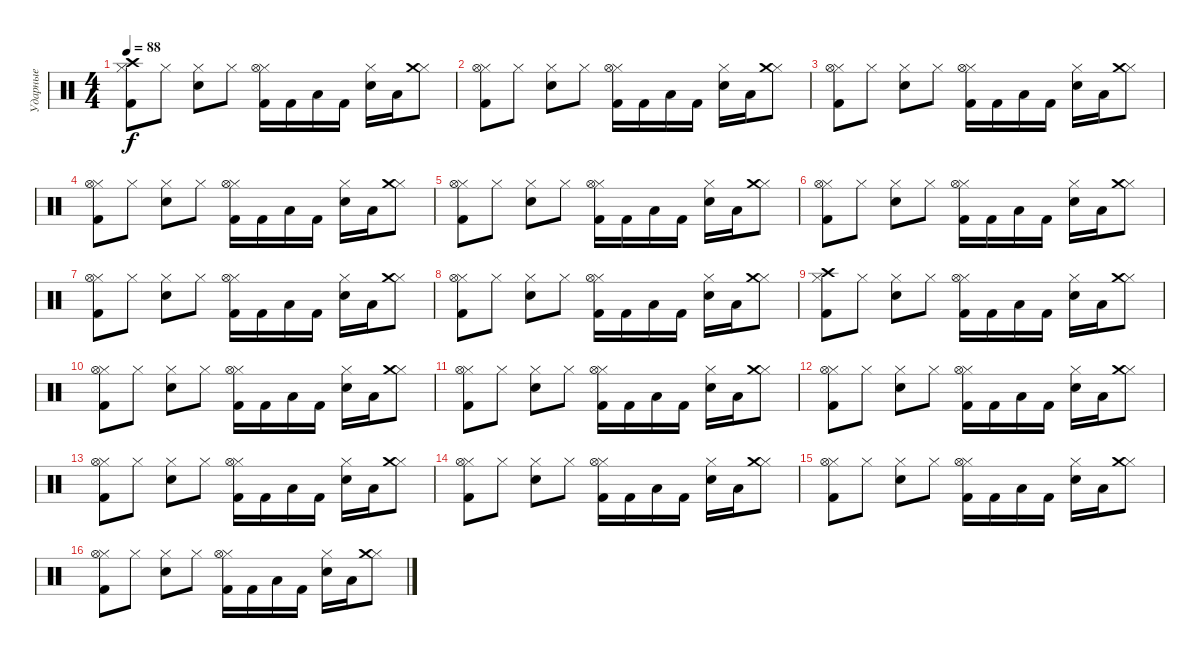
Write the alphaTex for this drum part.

\track ("Ударные" "Ударные") {instrument percussion}
\staff {score}
\articulation defaults
\ts (4 4)
\tempo 88
\clef neutral
\ks c
("Hi-Hat (closed)" "Kick (hit) 2" "Crash high (hit)").8{dy f} "Hi-Hat (closed)".8 ("Hi-Hat (closed)" "Snare (hit) 2").8 "Hi-Hat (closed)".8 ("Hi-Hat (closed)" "Kick (hit) 2" "Hi-Hat (open)").16 "Kick (hit) 2".16 "Low Floor Tom (hit)".16 "Kick (hit) 2".16 ("Hi-Hat (closed)" "Snare (hit) 2").16 "Low Floor Tom (hit)".16 ("Hi-Hat (closed)" "Crash medium (hit)").8 |
("Hi-Hat (closed)" "Kick (hit) 2" "Hi-Hat (open)").8 "Hi-Hat (closed)".8 ("Hi-Hat (closed)" "Snare (hit) 2").8 "Hi-Hat (closed)".8 ("Hi-Hat (closed)" "Kick (hit) 2" "Hi-Hat (open)").16 "Kick (hit) 2".16 "Low Floor Tom (hit)".16 "Kick (hit) 2".16 ("Hi-Hat (closed)" "Snare (hit) 2").16 "Low Floor Tom (hit)".16 ("Hi-Hat (closed)" "Crash medium (hit)").8 |
("Hi-Hat (closed)" "Kick (hit) 2" "Hi-Hat (open)").8 "Hi-Hat (closed)".8 ("Hi-Hat (closed)" "Snare (hit) 2").8 "Hi-Hat (closed)".8 ("Hi-Hat (closed)" "Kick (hit) 2" "Hi-Hat (open)").16 "Kick (hit) 2".16 "Low Floor Tom (hit)".16 "Kick (hit) 2".16 ("Hi-Hat (closed)" "Snare (hit) 2").16 "Low Floor Tom (hit)".16 ("Hi-Hat (closed)" "Crash medium (hit)").8 |
("Hi-Hat (closed)" "Kick (hit) 2" "Hi-Hat (open)").8 "Hi-Hat (closed)".8 ("Hi-Hat (closed)" "Snare (hit) 2").8 "Hi-Hat (closed)".8 ("Hi-Hat (closed)" "Kick (hit) 2" "Hi-Hat (open)").16 "Kick (hit) 2".16 "Low Floor Tom (hit)".16 "Kick (hit) 2".16 ("Hi-Hat (closed)" "Snare (hit) 2").16 "Low Floor Tom (hit)".16 ("Hi-Hat (closed)" "Crash medium (hit)").8 |
("Hi-Hat (closed)" "Kick (hit) 2" "Hi-Hat (open)").8 "Hi-Hat (closed)".8 ("Hi-Hat (closed)" "Snare (hit) 2").8 "Hi-Hat (closed)".8 ("Hi-Hat (closed)" "Kick (hit) 2" "Hi-Hat (open)").16 "Kick (hit) 2".16 "Low Floor Tom (hit)".16 "Kick (hit) 2".16 ("Hi-Hat (closed)" "Snare (hit) 2").16 "Low Floor Tom (hit)".16 ("Hi-Hat (closed)" "Crash medium (hit)").8 |
("Hi-Hat (closed)" "Kick (hit) 2" "Hi-Hat (open)").8 "Hi-Hat (closed)".8 ("Hi-Hat (closed)" "Snare (hit) 2").8 "Hi-Hat (closed)".8 ("Hi-Hat (closed)" "Kick (hit) 2" "Hi-Hat (open)").16 "Kick (hit) 2".16 "Low Floor Tom (hit)".16 "Kick (hit) 2".16 ("Hi-Hat (closed)" "Snare (hit) 2").16 "Low Floor Tom (hit)".16 ("Hi-Hat (closed)" "Crash medium (hit)").8 |
("Hi-Hat (closed)" "Kick (hit) 2" "Hi-Hat (open)").8 "Hi-Hat (closed)".8 ("Hi-Hat (closed)" "Snare (hit) 2").8 "Hi-Hat (closed)".8 ("Hi-Hat (closed)" "Kick (hit) 2" "Hi-Hat (open)").16 "Kick (hit) 2".16 "Low Floor Tom (hit)".16 "Kick (hit) 2".16 ("Hi-Hat (closed)" "Snare (hit) 2").16 "Low Floor Tom (hit)".16 ("Hi-Hat (closed)" "Crash medium (hit)").8 |
("Hi-Hat (closed)" "Kick (hit) 2" "Hi-Hat (open)").8 "Hi-Hat (closed)".8 ("Hi-Hat (closed)" "Snare (hit) 2").8 "Hi-Hat (closed)".8 ("Hi-Hat (closed)" "Kick (hit) 2" "Hi-Hat (open)").16 "Kick (hit) 2".16 "Low Floor Tom (hit)".16 "Kick (hit) 2".16 ("Hi-Hat (closed)" "Snare (hit) 2").16 "Low Floor Tom (hit)".16 ("Hi-Hat (closed)" "Crash medium (hit)").8 |
("Hi-Hat (closed)" "Kick (hit) 2" "Crash high (hit)").8 "Hi-Hat (closed)".8 ("Hi-Hat (closed)" "Snare (hit) 2").8 "Hi-Hat (closed)".8 ("Hi-Hat (closed)" "Kick (hit) 2" "Hi-Hat (open)").16 "Kick (hit) 2".16 "Low Floor Tom (hit)".16 "Kick (hit) 2".16 ("Hi-Hat (closed)" "Snare (hit) 2").16 "Low Floor Tom (hit)".16 ("Hi-Hat (closed)" "Crash medium (hit)").8 |
("Hi-Hat (closed)" "Kick (hit) 2" "Hi-Hat (open)").8 "Hi-Hat (closed)".8 ("Hi-Hat (closed)" "Snare (hit) 2").8 "Hi-Hat (closed)".8 ("Hi-Hat (closed)" "Kick (hit) 2" "Hi-Hat (open)").16 "Kick (hit) 2".16 "Low Floor Tom (hit)".16 "Kick (hit) 2".16 ("Hi-Hat (closed)" "Snare (hit) 2").16 "Low Floor Tom (hit)".16 ("Hi-Hat (closed)" "Crash medium (hit)").8 |
("Hi-Hat (closed)" "Kick (hit) 2" "Hi-Hat (open)").8 "Hi-Hat (closed)".8 ("Hi-Hat (closed)" "Snare (hit) 2").8 "Hi-Hat (closed)".8 ("Hi-Hat (closed)" "Kick (hit) 2" "Hi-Hat (open)").16 "Kick (hit) 2".16 "Low Floor Tom (hit)".16 "Kick (hit) 2".16 ("Hi-Hat (closed)" "Snare (hit) 2").16 "Low Floor Tom (hit)".16 ("Hi-Hat (closed)" "Crash medium (hit)").8 |
("Hi-Hat (closed)" "Kick (hit) 2" "Hi-Hat (open)").8 "Hi-Hat (closed)".8 ("Hi-Hat (closed)" "Snare (hit) 2").8 "Hi-Hat (closed)".8 ("Hi-Hat (closed)" "Kick (hit) 2" "Hi-Hat (open)").16 "Kick (hit) 2".16 "Low Floor Tom (hit)".16 "Kick (hit) 2".16 ("Hi-Hat (closed)" "Snare (hit) 2").16 "Low Floor Tom (hit)".16 ("Hi-Hat (closed)" "Crash medium (hit)").8 |
("Hi-Hat (closed)" "Kick (hit) 2" "Hi-Hat (open)").8 "Hi-Hat (closed)".8 ("Hi-Hat (closed)" "Snare (hit) 2").8 "Hi-Hat (closed)".8 ("Hi-Hat (closed)" "Kick (hit) 2" "Hi-Hat (open)").16 "Kick (hit) 2".16 "Low Floor Tom (hit)".16 "Kick (hit) 2".16 ("Hi-Hat (closed)" "Snare (hit) 2").16 "Low Floor Tom (hit)".16 ("Hi-Hat (closed)" "Crash medium (hit)").8 |
("Hi-Hat (closed)" "Kick (hit) 2" "Hi-Hat (open)").8 "Hi-Hat (closed)".8 ("Hi-Hat (closed)" "Snare (hit) 2").8 "Hi-Hat (closed)".8 ("Hi-Hat (closed)" "Kick (hit) 2" "Hi-Hat (open)").16 "Kick (hit) 2".16 "Low Floor Tom (hit)".16 "Kick (hit) 2".16 ("Hi-Hat (closed)" "Snare (hit) 2").16 "Low Floor Tom (hit)".16 ("Hi-Hat (closed)" "Crash medium (hit)").8 |
("Hi-Hat (closed)" "Kick (hit) 2" "Hi-Hat (open)").8 "Hi-Hat (closed)".8 ("Hi-Hat (closed)" "Snare (hit) 2").8 "Hi-Hat (closed)".8 ("Hi-Hat (closed)" "Kick (hit) 2" "Hi-Hat (open)").16 "Kick (hit) 2".16 "Low Floor Tom (hit)".16 "Kick (hit) 2".16 ("Hi-Hat (closed)" "Snare (hit) 2").16 "Low Floor Tom (hit)".16 ("Hi-Hat (closed)" "Crash medium (hit)").8 |
("Hi-Hat (closed)" "Kick (hit) 2" "Hi-Hat (open)").8 "Hi-Hat (closed)".8 ("Hi-Hat (closed)" "Snare (hit) 2").8 "Hi-Hat (closed)".8 ("Hi-Hat (closed)" "Kick (hit) 2" "Hi-Hat (open)").16 "Kick (hit) 2".16 "Low Floor Tom (hit)".16 "Kick (hit) 2".16 ("Hi-Hat (closed)" "Snare (hit) 2").16 "Low Floor Tom (hit)".16 ("Hi-Hat (closed)" "Crash medium (hit)").8
